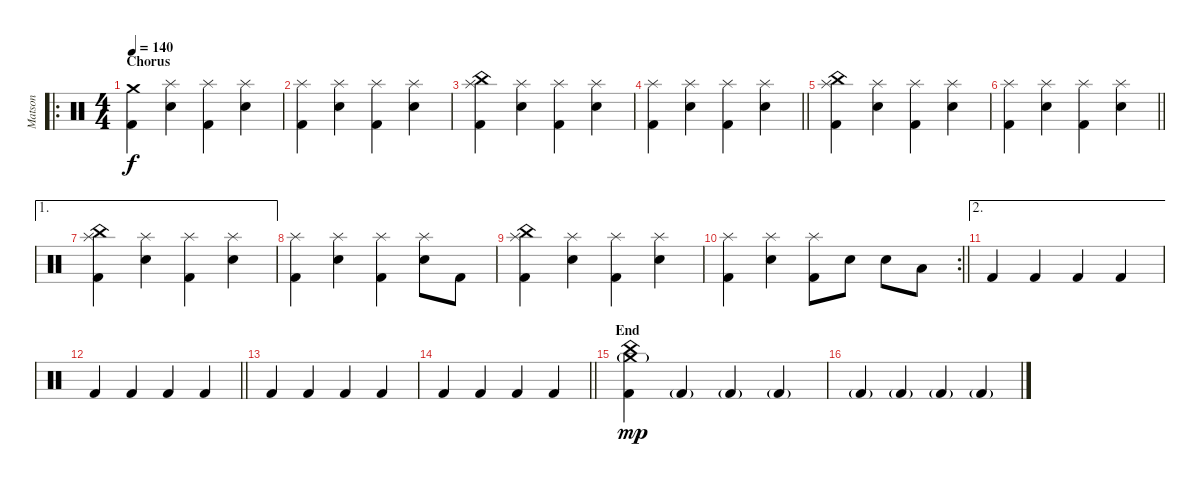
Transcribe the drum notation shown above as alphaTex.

\track ("Matson" "Matson") {instrument percussion}
\staff {score}
\articulation defaults
\ro
\ts (4 4)
\section ("" "Chorus")
\tempo 140
\clef neutral
\ks c
("Kick (hit) 2" "Crash medium (hit)").4{dy f} ("Snare (hit) 2" "Splash (hit)").4 ("Kick (hit) 2" "Splash (hit)").4 ("Snare (hit) 2" "Splash (hit)").4 |
("Kick (hit) 2" "Splash (hit)").4 ("Snare (hit) 2" "Splash (hit)").4 ("Kick (hit) 2" "Splash (hit)").4 ("Snare (hit) 2" "Splash (hit)").4 |
("Kick (hit) 2" "Splash (hit)" "China (hit)").4 ("Snare (hit) 2" "Splash (hit)").4 ("Kick (hit) 2" "Splash (hit)").4 ("Snare (hit) 2" "Splash (hit)").4 |
\barLineRight lightlight
("Kick (hit) 2" "Splash (hit)").4 ("Snare (hit) 2" "Splash (hit)").4 ("Kick (hit) 2" "Splash (hit)").4 ("Snare (hit) 2" "Splash (hit)").4 |
("Kick (hit) 2" "Splash (hit)" "China (hit)").4 ("Snare (hit) 2" "Splash (hit)").4 ("Kick (hit) 2" "Splash (hit)").4 ("Snare (hit) 2" "Splash (hit)").4 |
\barLineRight lightlight
("Kick (hit) 2" "Splash (hit)").4 ("Snare (hit) 2" "Splash (hit)").4 ("Kick (hit) 2" "Splash (hit)").4 ("Snare (hit) 2" "Splash (hit)").4 |
\ae 1
\section ("" "")
("Kick (hit) 2" "Splash (hit)" "China (hit)").4 ("Snare (hit) 2" "Splash (hit)").4 ("Kick (hit) 2" "Splash (hit)").4 ("Snare (hit) 2" "Splash (hit)").4 |
("Kick (hit) 2" "Splash (hit)").4 ("Snare (hit) 2" "Splash (hit)").4 ("Kick (hit) 2" "Splash (hit)").4 ("Snare (hit) 2" "Splash (hit)").8 "Kick (hit) 2".8 |
("Kick (hit) 2" "Splash (hit)" "China (hit)").4 ("Snare (hit) 2" "Splash (hit)").4 ("Kick (hit) 2" "Splash (hit)").4 ("Snare (hit) 2" "Splash (hit)").4 |
\rc 2
\barLineRight lightlight
("Kick (hit) 2" "Splash (hit)").4 ("Snare (hit) 2" "Splash (hit)").4 ("Kick (hit) 2" "Splash (hit)").8 "Snare (hit) 2".8 "Snare (hit) 2".8 "Low Floor Tom (hit)".8 |
\ae 2
\section ("" "")
"Kick (hit) 2".4 "Kick (hit) 2".4 "Kick (hit) 2".4 "Kick (hit) 2".4 |
\barLineRight lightlight "Kick (hit) 2".4 "Kick (hit) 2".4 "Kick (hit) 2".4 "Kick (hit) 2".4
|
"Kick (hit) 2".4 "Kick (hit) 2".4 "Kick (hit) 2".4 "Kick (hit) 2".4 |
\barLineRight lightlight "Kick (hit) 2".4 "Kick (hit) 2".4 "Kick (hit) 2".4 "Kick (hit) 2".4
|
\section ("" "End")
("Kick (hit) 2" "China (hit)" "Crash medium (hit)"{g}).4{dy mp} "Kick (hit) 2"{g}.4 "Kick (hit) 2"{g}.4 "Kick (hit) 2"{g}.4 |
"Kick (hit) 2"{g}.4 "Kick (hit) 2"{g}.4 "Kick (hit) 2"{g}.4 "Kick (hit) 2"{g}.4
